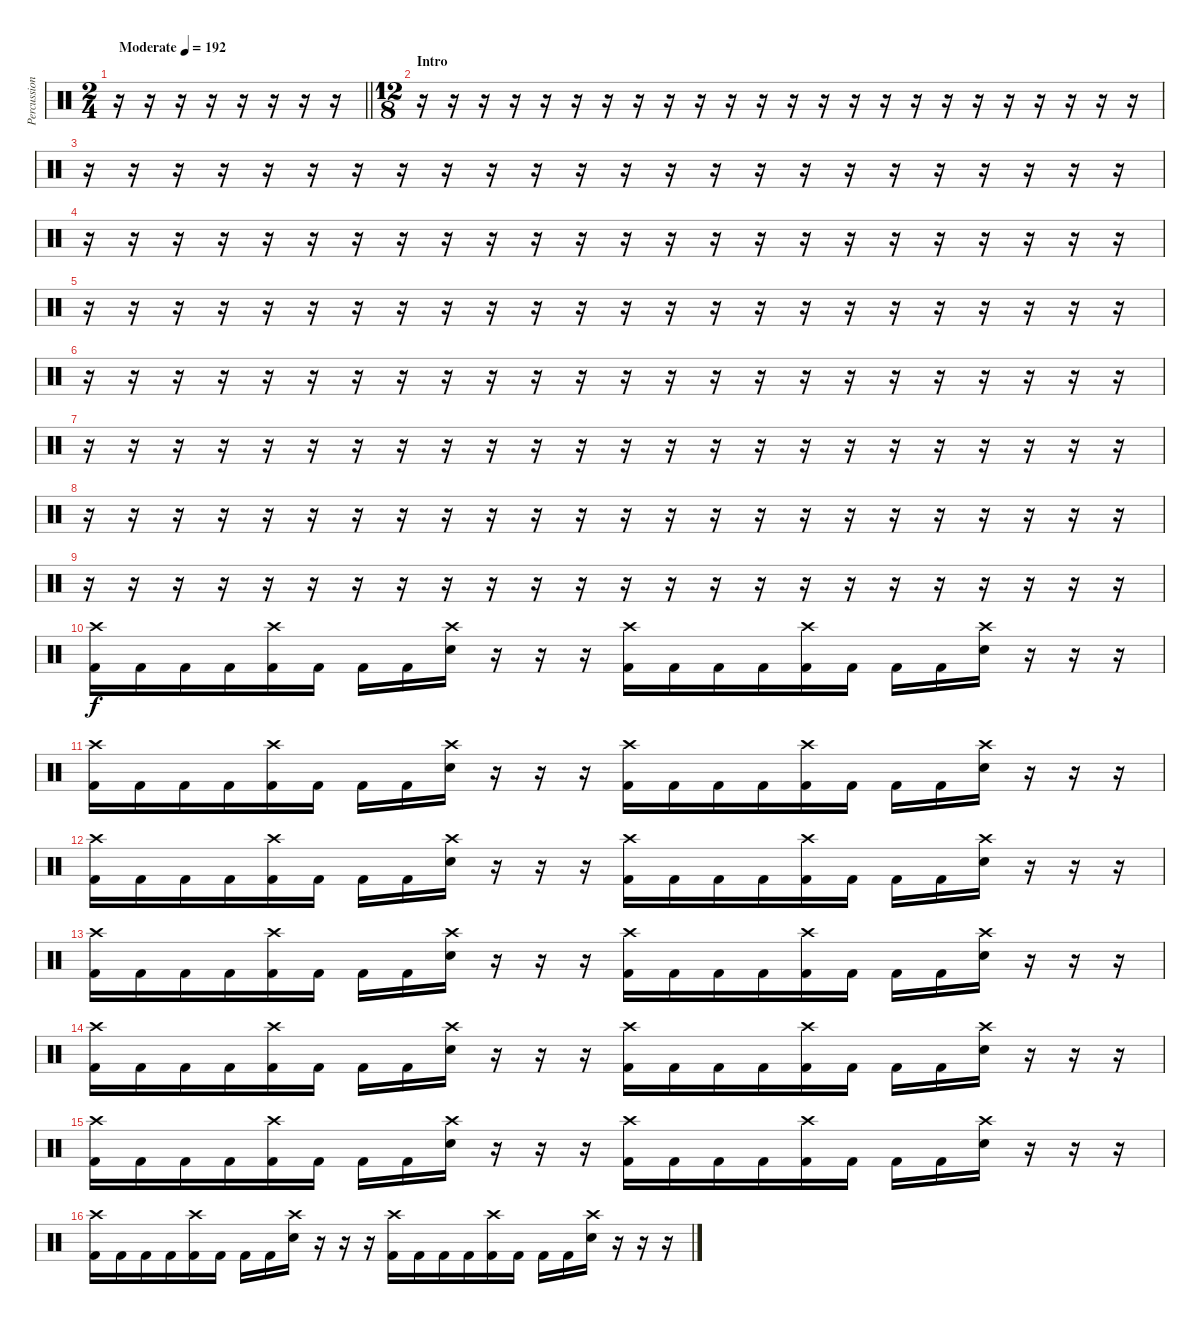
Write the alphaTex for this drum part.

\track ("Percussion" "Percussion") {instrument percussion}
\staff {score}
\articulation defaults
\ts (2 4)
\tempo (192 "Moderate")
\clef neutral
\barLineRight lightlight
\ks c
r.16{dy f} r.16 r.16 r.16 r.16 r.16 r.16 r.16 |
\ts (12 8)
\section ("" "Intro")
r.16 r.16 r.16 r.16 r.16 r.16 r.16 r.16 r.16 r.16 r.16 r.16 r.16 r.16 r.16 r.16 r.16 r.16 r.16 r.16 r.16 r.16 r.16 r.16 |
r.16 r.16 r.16 r.16 r.16 r.16 r.16 r.16 r.16 r.16 r.16 r.16 r.16 r.16 r.16 r.16 r.16 r.16 r.16 r.16 r.16 r.16 r.16 r.16 |
r.16 r.16 r.16 r.16 r.16 r.16 r.16 r.16 r.16 r.16 r.16 r.16 r.16 r.16 r.16 r.16 r.16 r.16 r.16 r.16 r.16 r.16 r.16 r.16 |
r.16 r.16 r.16 r.16 r.16 r.16 r.16 r.16 r.16 r.16 r.16 r.16 r.16 r.16 r.16 r.16 r.16 r.16 r.16 r.16 r.16 r.16 r.16 r.16 |
r.16 r.16 r.16 r.16 r.16 r.16 r.16 r.16 r.16 r.16 r.16 r.16 r.16 r.16 r.16 r.16 r.16 r.16 r.16 r.16 r.16 r.16 r.16 r.16 |
r.16 r.16 r.16 r.16 r.16 r.16 r.16 r.16 r.16 r.16 r.16 r.16 r.16 r.16 r.16 r.16 r.16 r.16 r.16 r.16 r.16 r.16 r.16 r.16 |
r.16 r.16 r.16 r.16 r.16 r.16 r.16 r.16 r.16 r.16 r.16 r.16 r.16 r.16 r.16 r.16 r.16 r.16 r.16 r.16 r.16 r.16 r.16 r.16 |
r.16 r.16 r.16 r.16 r.16 r.16 r.16 r.16 r.16 r.16 r.16 r.16 r.16 r.16 r.16 r.16 r.16 r.16 r.16 r.16 r.16 r.16 r.16 r.16 |
("Crash high (hit)" "Kick (hit) 2").16 "Kick (hit) 2".16 "Kick (hit) 2".16 "Kick (hit) 2".16 ("Crash high (hit)" "Kick (hit) 2").16 "Kick (hit) 2".16 "Kick (hit) 2".16 "Kick (hit) 2".16 ("Crash high (hit)" "Electric Snare (hit)").16 r.16 r.16 r.16 ("Crash high (hit)" "Kick (hit) 2").16 "Kick (hit) 2".16 "Kick (hit) 2".16 "Kick (hit) 2".16 ("Crash high (hit)" "Kick (hit) 2").16 "Kick (hit) 2".16 "Kick (hit) 2".16 "Kick (hit) 2".16 ("Crash high (hit)" "Electric Snare (hit)").16 r.16 r.16 r.16 |
("Crash high (hit)" "Kick (hit) 2").16 "Kick (hit) 2".16 "Kick (hit) 2".16 "Kick (hit) 2".16 ("Crash high (hit)" "Kick (hit) 2").16 "Kick (hit) 2".16 "Kick (hit) 2".16 "Kick (hit) 2".16 ("Crash high (hit)" "Electric Snare (hit)").16 r.16 r.16 r.16 ("Crash high (hit)" "Kick (hit) 2").16 "Kick (hit) 2".16 "Kick (hit) 2".16 "Kick (hit) 2".16 ("Crash high (hit)" "Kick (hit) 2").16 "Kick (hit) 2".16 "Kick (hit) 2".16 "Kick (hit) 2".16 ("Crash high (hit)" "Electric Snare (hit)").16 r.16 r.16 r.16 |
("Crash high (hit)" "Kick (hit) 2").16 "Kick (hit) 2".16 "Kick (hit) 2".16 "Kick (hit) 2".16 ("Crash high (hit)" "Kick (hit) 2").16 "Kick (hit) 2".16 "Kick (hit) 2".16 "Kick (hit) 2".16 ("Crash high (hit)" "Electric Snare (hit)").16 r.16 r.16 r.16 ("Crash high (hit)" "Kick (hit) 2").16 "Kick (hit) 2".16 "Kick (hit) 2".16 "Kick (hit) 2".16 ("Crash high (hit)" "Kick (hit) 2").16 "Kick (hit) 2".16 "Kick (hit) 2".16 "Kick (hit) 2".16 ("Crash high (hit)" "Electric Snare (hit)").16 r.16 r.16 r.16 |
("Crash high (hit)" "Kick (hit) 2").16 "Kick (hit) 2".16 "Kick (hit) 2".16 "Kick (hit) 2".16 ("Crash high (hit)" "Kick (hit) 2").16 "Kick (hit) 2".16 "Kick (hit) 2".16 "Kick (hit) 2".16 ("Crash high (hit)" "Electric Snare (hit)").16 r.16 r.16 r.16 ("Crash high (hit)" "Kick (hit) 2").16 "Kick (hit) 2".16 "Kick (hit) 2".16 "Kick (hit) 2".16 ("Crash high (hit)" "Kick (hit) 2").16 "Kick (hit) 2".16 "Kick (hit) 2".16 "Kick (hit) 2".16 ("Crash high (hit)" "Electric Snare (hit)").16 r.16 r.16 r.16 |
("Crash high (hit)" "Kick (hit) 2").16 "Kick (hit) 2".16 "Kick (hit) 2".16 "Kick (hit) 2".16 ("Crash high (hit)" "Kick (hit) 2").16 "Kick (hit) 2".16 "Kick (hit) 2".16 "Kick (hit) 2".16 ("Crash high (hit)" "Electric Snare (hit)").16 r.16 r.16 r.16 ("Crash high (hit)" "Kick (hit) 2").16 "Kick (hit) 2".16 "Kick (hit) 2".16 "Kick (hit) 2".16 ("Crash high (hit)" "Kick (hit) 2").16 "Kick (hit) 2".16 "Kick (hit) 2".16 "Kick (hit) 2".16 ("Crash high (hit)" "Electric Snare (hit)").16 r.16 r.16 r.16 |
("Crash high (hit)" "Kick (hit) 2").16 "Kick (hit) 2".16 "Kick (hit) 2".16 "Kick (hit) 2".16 ("Crash high (hit)" "Kick (hit) 2").16 "Kick (hit) 2".16 "Kick (hit) 2".16 "Kick (hit) 2".16 ("Crash high (hit)" "Electric Snare (hit)").16 r.16 r.16 r.16 ("Crash high (hit)" "Kick (hit) 2").16 "Kick (hit) 2".16 "Kick (hit) 2".16 "Kick (hit) 2".16 ("Crash high (hit)" "Kick (hit) 2").16 "Kick (hit) 2".16 "Kick (hit) 2".16 "Kick (hit) 2".16 ("Crash high (hit)" "Electric Snare (hit)").16 r.16 r.16 r.16 |
("Crash high (hit)" "Kick (hit) 2").16 "Kick (hit) 2".16 "Kick (hit) 2".16 "Kick (hit) 2".16 ("Crash high (hit)" "Kick (hit) 2").16 "Kick (hit) 2".16 "Kick (hit) 2".16 "Kick (hit) 2".16 ("Crash high (hit)" "Electric Snare (hit)").16 r.16 r.16 r.16 ("Crash high (hit)" "Kick (hit) 2").16 "Kick (hit) 2".16 "Kick (hit) 2".16 "Kick (hit) 2".16 ("Crash high (hit)" "Kick (hit) 2").16 "Kick (hit) 2".16 "Kick (hit) 2".16 "Kick (hit) 2".16 ("Crash high (hit)" "Electric Snare (hit)").16 r.16 r.16 r.16
